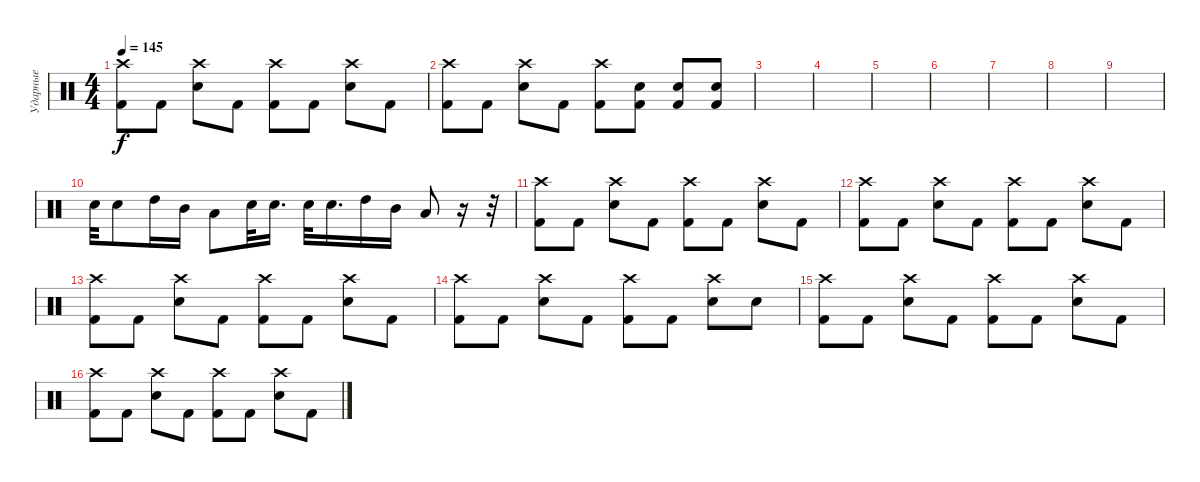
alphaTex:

\track ("Ударные" "Ударные") {instrument percussion}
\staff {score}
\articulation defaults
\ts (4 4)
\tempo 145
\clef neutral
\ks c
("Crash high (hit)" "Kick (hit) 2").8{dy f} "Kick (hit) 2".8 ("Crash high (hit)" "Electric Snare (hit)").8 "Kick (hit) 2".8 ("Crash high (hit)" "Kick (hit) 2").8 "Kick (hit) 2".8 ("Crash high (hit)" "Electric Snare (hit)").8 "Kick (hit) 2".8 |
("Crash high (hit)" "Kick (hit) 2").8 "Kick (hit) 2".8 ("Crash high (hit)" "Electric Snare (hit)").8 "Kick (hit) 2".8 ("Crash high (hit)" "Kick (hit) 2").8 ("Electric Snare (hit)" "Kick (hit) 2").8 ("Electric Snare (hit)" "Kick (hit) 2").8 ("Electric Snare (hit)" "Kick (hit) 2").8 |
|
|
|
|
|
|
|
"Electric Snare (hit)".32 "Electric Snare (hit)".8 "High Tom (hit)".16 "Mid Tom (hit)".16 "Low Tom (hit)".8 "Electric Snare (hit)".32 "Electric Snare (hit)".16{d} "Electric Snare (hit)".32 "Electric Snare (hit)".16{d} "High Tom (hit)".16 "Mid Tom (hit)".16 "Low Tom (hit)".8 r.16 r.32 |
("Crash high (hit)" "Kick (hit) 2").8 "Kick (hit) 2".8 ("Crash high (hit)" "Electric Snare (hit)").8 "Kick (hit) 2".8 ("Crash high (hit)" "Kick (hit) 2").8 "Kick (hit) 2".8 ("Crash high (hit)" "Electric Snare (hit)").8 "Kick (hit) 2".8 |
("Crash high (hit)" "Kick (hit) 2").8 "Kick (hit) 2".8 ("Crash high (hit)" "Electric Snare (hit)").8 "Kick (hit) 2".8 ("Crash high (hit)" "Kick (hit) 2").8 "Kick (hit) 2".8 ("Crash high (hit)" "Electric Snare (hit)").8 "Kick (hit) 2".8 |
("Crash high (hit)" "Kick (hit) 2").8 "Kick (hit) 2".8 ("Crash high (hit)" "Electric Snare (hit)").8 "Kick (hit) 2".8 ("Crash high (hit)" "Kick (hit) 2").8 "Kick (hit) 2".8 ("Crash high (hit)" "Electric Snare (hit)").8 "Kick (hit) 2".8 |
("Crash high (hit)" "Kick (hit) 2").8 "Kick (hit) 2".8 ("Crash high (hit)" "Electric Snare (hit)").8 "Kick (hit) 2".8 ("Crash high (hit)" "Kick (hit) 2").8 "Kick (hit) 2".8 ("Crash high (hit)" "Electric Snare (hit)").8 "Electric Snare (hit)".8 |
("Crash high (hit)" "Kick (hit) 2").8 "Kick (hit) 2".8 ("Crash high (hit)" "Electric Snare (hit)").8 "Kick (hit) 2".8 ("Crash high (hit)" "Kick (hit) 2").8 "Kick (hit) 2".8 ("Crash high (hit)" "Electric Snare (hit)").8 "Kick (hit) 2".8 |
("Crash high (hit)" "Kick (hit) 2").8 "Kick (hit) 2".8 ("Crash high (hit)" "Electric Snare (hit)").8 "Kick (hit) 2".8 ("Crash high (hit)" "Kick (hit) 2").8 "Kick (hit) 2".8 ("Crash high (hit)" "Electric Snare (hit)").8 "Kick (hit) 2".8
